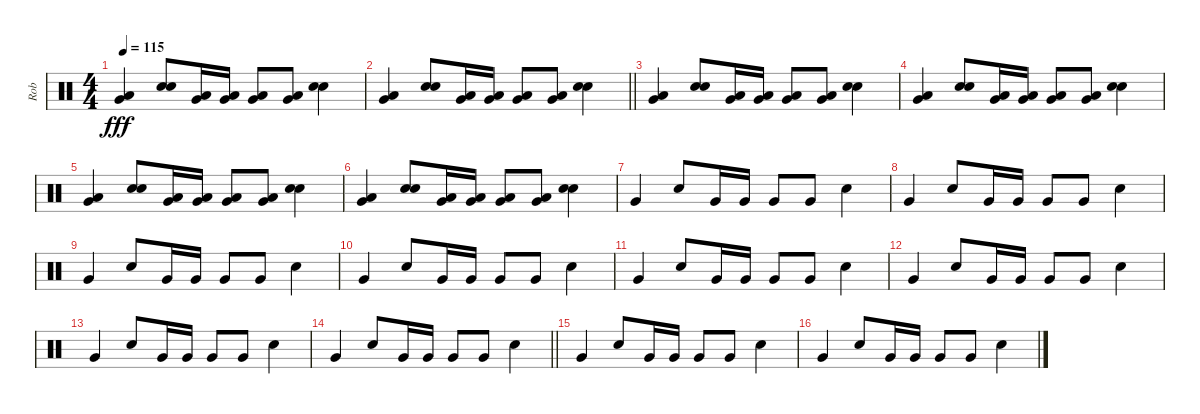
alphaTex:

\track ("Rob" "Rob") {instrument percussion}
\staff {score}
\articulation defaults
\ts (4 4)
\tempo 115
\clef neutral
\ks c
("Very Low Tom (hit)" "Low Floor Tom (hit)").4{dy fff} ("Snare (hit) 2" "Electric Snare (hit)").8 ("Very Low Tom (hit)" "Low Floor Tom (hit)").16 ("Very Low Tom (hit)" "Low Floor Tom (hit)").16 ("Very Low Tom (hit)" "Low Floor Tom (hit)").8 ("Very Low Tom (hit)" "Low Floor Tom (hit)").8 ("Snare (hit) 2" "Electric Snare (hit)").4 |
\barLineRight lightlight
("Very Low Tom (hit)" "Low Floor Tom (hit)").4 ("Snare (hit) 2" "Electric Snare (hit)").8 ("Very Low Tom (hit)" "Low Floor Tom (hit)").16 ("Very Low Tom (hit)" "Low Floor Tom (hit)").16 ("Very Low Tom (hit)" "Low Floor Tom (hit)").8 ("Very Low Tom (hit)" "Low Floor Tom (hit)").8 ("Snare (hit) 2" "Electric Snare (hit)").4 |
("Very Low Tom (hit)" "Low Floor Tom (hit)").4 ("Snare (hit) 2" "Electric Snare (hit)").8 ("Very Low Tom (hit)" "Low Floor Tom (hit)").16 ("Very Low Tom (hit)" "Low Floor Tom (hit)").16 ("Very Low Tom (hit)" "Low Floor Tom (hit)").8 ("Very Low Tom (hit)" "Low Floor Tom (hit)").8 ("Snare (hit) 2" "Electric Snare (hit)").4 |
("Very Low Tom (hit)" "Low Floor Tom (hit)").4 ("Snare (hit) 2" "Electric Snare (hit)").8 ("Very Low Tom (hit)" "Low Floor Tom (hit)").16 ("Very Low Tom (hit)" "Low Floor Tom (hit)").16 ("Very Low Tom (hit)" "Low Floor Tom (hit)").8 ("Very Low Tom (hit)" "Low Floor Tom (hit)").8 ("Snare (hit) 2" "Electric Snare (hit)").4 |
("Very Low Tom (hit)" "Low Floor Tom (hit)").4 ("Snare (hit) 2" "Electric Snare (hit)").8 ("Very Low Tom (hit)" "Low Floor Tom (hit)").16 ("Very Low Tom (hit)" "Low Floor Tom (hit)").16 ("Very Low Tom (hit)" "Low Floor Tom (hit)").8 ("Very Low Tom (hit)" "Low Floor Tom (hit)").8 ("Snare (hit) 2" "Electric Snare (hit)").4 |
("Very Low Tom (hit)" "Low Floor Tom (hit)").4 ("Snare (hit) 2" "Electric Snare (hit)").8 ("Very Low Tom (hit)" "Low Floor Tom (hit)").16 ("Very Low Tom (hit)" "Low Floor Tom (hit)").16 ("Very Low Tom (hit)" "Low Floor Tom (hit)").8 ("Very Low Tom (hit)" "Low Floor Tom (hit)").8 ("Snare (hit) 2" "Electric Snare (hit)").4 |
"Very Low Tom (hit)".4 "Snare (hit) 2".8 "Very Low Tom (hit)".16 "Very Low Tom (hit)".16 "Very Low Tom (hit)".8 "Very Low Tom (hit)".8 "Snare (hit) 2".4 |
"Very Low Tom (hit)".4 "Snare (hit) 2".8 "Very Low Tom (hit)".16 "Very Low Tom (hit)".16 "Very Low Tom (hit)".8 "Very Low Tom (hit)".8 "Snare (hit) 2".4 |
"Very Low Tom (hit)".4 "Snare (hit) 2".8 "Very Low Tom (hit)".16 "Very Low Tom (hit)".16 "Very Low Tom (hit)".8 "Very Low Tom (hit)".8 "Snare (hit) 2".4 |
"Very Low Tom (hit)".4 "Snare (hit) 2".8 "Very Low Tom (hit)".16 "Very Low Tom (hit)".16 "Very Low Tom (hit)".8 "Very Low Tom (hit)".8 "Snare (hit) 2".4 |
"Very Low Tom (hit)".4 "Snare (hit) 2".8 "Very Low Tom (hit)".16 "Very Low Tom (hit)".16 "Very Low Tom (hit)".8 "Very Low Tom (hit)".8 "Snare (hit) 2".4 |
"Very Low Tom (hit)".4 "Snare (hit) 2".8 "Very Low Tom (hit)".16 "Very Low Tom (hit)".16 "Very Low Tom (hit)".8 "Very Low Tom (hit)".8 "Snare (hit) 2".4 |
"Very Low Tom (hit)".4 "Snare (hit) 2".8 "Very Low Tom (hit)".16 "Very Low Tom (hit)".16 "Very Low Tom (hit)".8 "Very Low Tom (hit)".8 "Snare (hit) 2".4 |
\barLineRight lightlight "Very Low Tom (hit)".4 "Snare (hit) 2".8 "Very Low Tom (hit)".16 "Very Low Tom (hit)".16 "Very Low Tom (hit)".8 "Very Low Tom (hit)".8 "Snare (hit) 2".4
|
"Very Low Tom (hit)".4 "Snare (hit) 2".8 "Very Low Tom (hit)".16 "Very Low Tom (hit)".16 "Very Low Tom (hit)".8 "Very Low Tom (hit)".8 "Snare (hit) 2".4 |
"Very Low Tom (hit)".4 "Snare (hit) 2".8 "Very Low Tom (hit)".16 "Very Low Tom (hit)".16 "Very Low Tom (hit)".8 "Very Low Tom (hit)".8 "Snare (hit) 2".4
